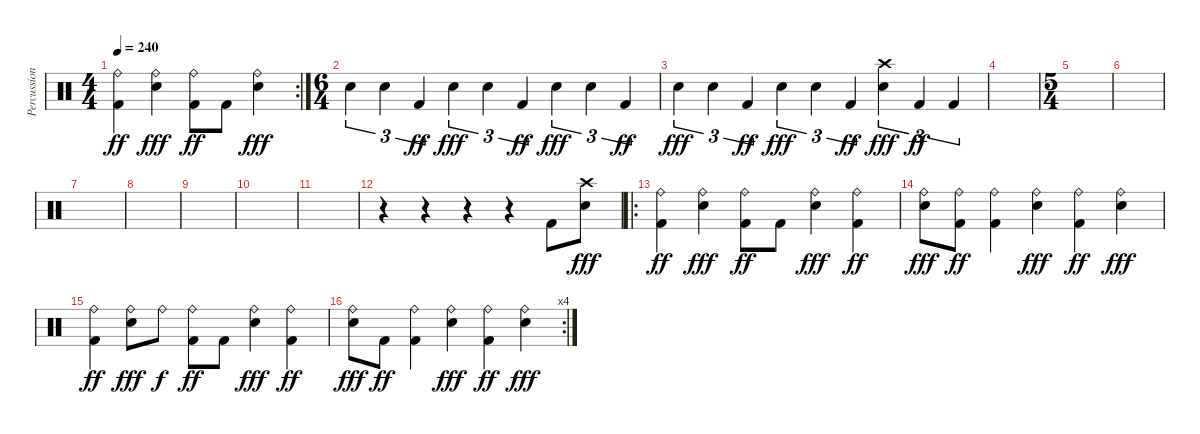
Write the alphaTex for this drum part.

\track ("Percussion" "Percussion") {instrument percussion}
\staff {score}
\articulation defaults
\rc 2
\ts (4 4)
\tempo 240
\clef neutral
\ks c
("Ride (bell)" "Kick (hit) 2").4{dy ff} ("Ride (bell)" "Snare (hit) 2").4{dy fff} ("Ride (bell)" "Kick (hit) 2").8{dy ff} "Kick (hit) 2".8 ("Ride (bell)" "Snare (hit) 2").4{dy fff} |
\ts (6 4)
"Snare (hit) 2".4{tu (3 2)} "Snare (hit) 2".4{tu (3 2)} "Kick (hit) 2".4{tu (3 2) dy ff} "Snare (hit) 2".4{tu (3 2) dy fff} "Snare (hit) 2".4{tu (3 2)} "Kick (hit) 2".4{tu (3 2) dy ff} "Snare (hit) 2".4{tu (3 2) dy fff} "Snare (hit) 2".4{tu (3 2)} "Kick (hit) 2".4{tu (3 2) dy ff} |
"Snare (hit) 2".4{tu (3 2) dy fff} "Snare (hit) 2".4{tu (3 2)} "Kick (hit) 2".4{tu (3 2) dy ff} "Snare (hit) 2".4{tu (3 2) dy fff} "Snare (hit) 2".4{tu (3 2)} "Kick (hit) 2".4{tu (3 2) dy ff} ("Crash high (hit)" "Snare (hit) 2").4{tu (3 2) dy fff} "Kick (hit) 2".4{tu (3 2) dy ff} "Kick (hit) 2".4{tu (3 2)} |
|
\ts (5 4)
|
|
|
|
|
|
|
r.4 r.4 r.4 r.4 "Kick (hit) 2".8 ("Crash high (hit)" "Snare (hit) 2").8{dy fff} |
\ro
("Ride (bell)" "Kick (hit) 2").4{dy ff} ("Ride (bell)" "Snare (hit) 2").4{dy fff} ("Ride (bell)" "Kick (hit) 2").8{dy ff} "Kick (hit) 2".8 ("Ride (bell)" "Snare (hit) 2").4{dy fff} ("Ride (bell)" "Kick (hit) 2").4{dy ff} |
("Ride (bell)" "Snare (hit) 2").8{dy fff} ("Ride (bell)" "Kick (hit) 2").8{dy ff} ("Ride (bell)" "Kick (hit) 2").4 ("Ride (bell)" "Snare (hit) 2").4{dy fff} ("Ride (bell)" "Kick (hit) 2").4{dy ff} ("Ride (bell)" "Snare (hit) 2").4{dy fff} |
("Ride (bell)" "Kick (hit) 2").4{dy ff} ("Ride (bell)" "Snare (hit) 2").8{dy fff} "Ride (bell)".8{dy f} ("Ride (bell)" "Kick (hit) 2").8{dy ff} "Kick (hit) 2".8 ("Ride (bell)" "Snare (hit) 2").4{dy fff} ("Ride (bell)" "Kick (hit) 2").4{dy ff} |
\rc 4
("Ride (bell)" "Snare (hit) 2").8{dy fff} "Kick (hit) 2".8{dy ff} ("Ride (bell)" "Kick (hit) 2").4 ("Ride (bell)" "Snare (hit) 2").4{dy fff} ("Ride (bell)" "Kick (hit) 2").4{dy ff} ("Ride (bell)" "Snare (hit) 2").4{dy fff}
